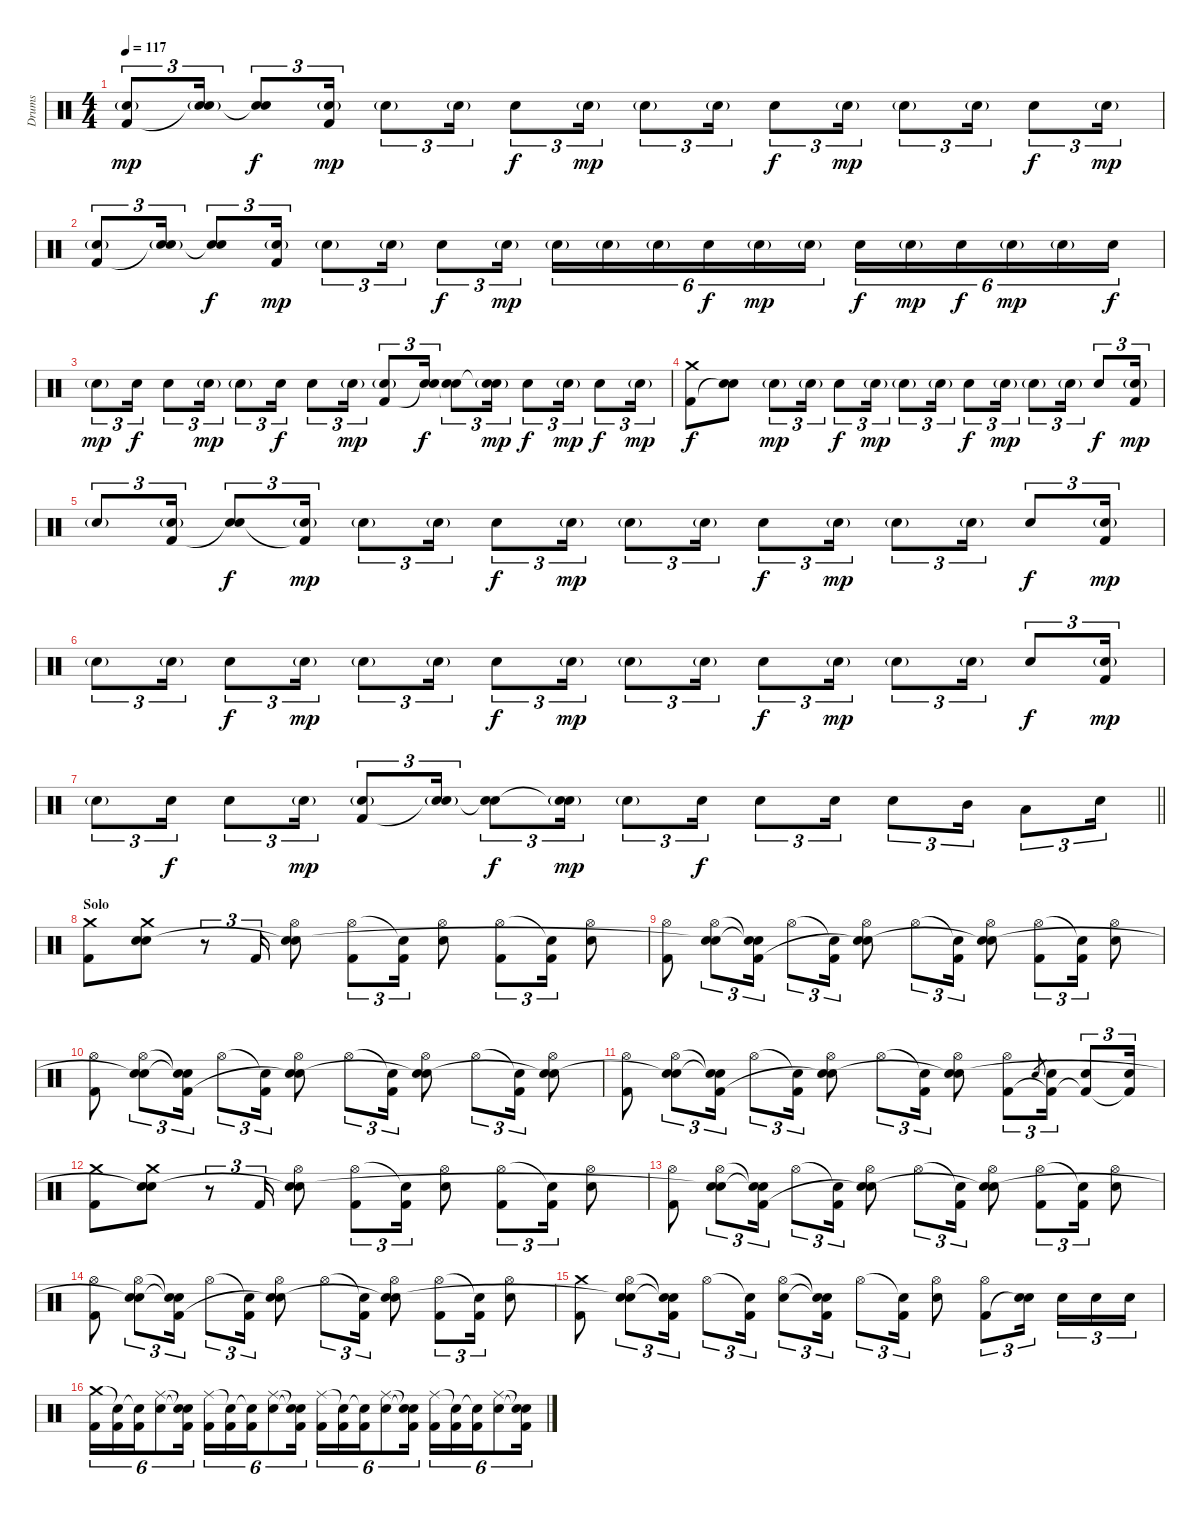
\track ("Drums" "Drums") {instrument percussion}
\staff {score}
\articulation defaults
\ts (4 4)
\tempo 117
\clef neutral
\ks aminor
("Electric Snare (hit)"{g} "Kick (hit) 2").8{tu (3 2) dy mp} ("Electric Snare (hit)"{g} "Snare (hit)"{t}).16{tu (3 2)} ("Electric Snare (hit)" "Snare (hit)"{t}).8{tu (3 2) dy f} ("Electric Snare (hit)"{g} "Kick (hit) 2").16{tu (3 2) dy mp} "Electric Snare (hit)"{g}.8{tu (3 2)} "Electric Snare (hit)"{g}.16{tu (3 2)} "Electric Snare (hit)".8{tu (3 2) dy f} "Electric Snare (hit)"{g}.16{tu (3 2) dy mp} "Electric Snare (hit)"{g}.8{tu (3 2)} "Electric Snare (hit)"{g}.16{tu (3 2)} "Electric Snare (hit)".8{tu (3 2) dy f} "Electric Snare (hit)"{g}.16{tu (3 2) dy mp} "Electric Snare (hit)"{g}.8{tu (3 2)} "Electric Snare (hit)"{g}.16{tu (3 2)} "Electric Snare (hit)".8{tu (3 2) dy f} "Electric Snare (hit)"{g}.16{tu (3 2) dy mp} |
("Electric Snare (hit)"{g} "Kick (hit) 2").8{tu (3 2)} ("Electric Snare (hit)"{g} "Snare (hit)"{t}).16{tu (3 2)} ("Electric Snare (hit)" "Snare (hit)"{t}).8{tu (3 2) dy f} ("Electric Snare (hit)"{g} "Kick (hit) 2").16{tu (3 2) dy mp} "Electric Snare (hit)"{g}.8{tu (3 2)} "Electric Snare (hit)"{g}.16{tu (3 2)} "Electric Snare (hit)".8{tu (3 2) dy f} "Electric Snare (hit)"{g}.16{tu (3 2) dy mp} "Electric Snare (hit)"{g}.16{tu (6 4)} "Electric Snare (hit)"{g}.16{tu (6 4)} "Electric Snare (hit)"{g}.16{tu (6 4)} "Electric Snare (hit)".16{tu (6 4) dy f} "Electric Snare (hit)"{g}.16{tu (6 4) dy mp} "Electric Snare (hit)"{g}.16{tu (6 4)} "Electric Snare (hit)".16{tu (6 4) dy f} "Electric Snare (hit)"{g}.16{tu (6 4) dy mp} "Electric Snare (hit)".16{tu (6 4) dy f} "Electric Snare (hit)"{g}.16{tu (6 4) dy mp} "Electric Snare (hit)"{g}.16{tu (6 4)} "Electric Snare (hit)".16{tu (6 4) dy f} |
"Electric Snare (hit)"{g}.8{tu (3 2) dy mp} "Electric Snare (hit)".16{tu (3 2) dy f} "Electric Snare (hit)".8{tu (3 2)} "Electric Snare (hit)"{g}.16{tu (3 2) dy mp} "Electric Snare (hit)"{g}.8{tu (3 2)} "Electric Snare (hit)".16{tu (3 2) dy f} "Electric Snare (hit)".8{tu (3 2)} "Electric Snare (hit)"{g}.16{tu (3 2) dy mp} ("Electric Snare (hit)"{g} "Kick (hit) 2").8{tu (3 2)} ("Electric Snare (hit)" "Snare (hit)"{t}).16{tu (3 2) dy f} ("Electric Snare (hit)" "Snare (hit)"{t}).8{tu (3 2)} ("Electric Snare (hit)"{g} "Snare (hit)"{t}).16{tu (3 2) dy mp} "Electric Snare (hit)".8{tu (3 2) dy f} "Electric Snare (hit)"{g}.16{tu (3 2) dy mp} "Electric Snare (hit)".8{tu (3 2) dy f} "Electric Snare (hit)"{g}.16{tu (3 2) dy mp} |
("Crash medium (hit)" "Kick (hit) 2").8{dy f} ("Electric Snare (hit)" "Snare (hit)"{t}).8 "Electric Snare (hit)"{g}.8{tu (3 2) dy mp} "Electric Snare (hit)"{g}.16{tu (3 2)} "Electric Snare (hit)".8{tu (3 2) dy f} "Electric Snare (hit)"{g}.16{tu (3 2) dy mp} "Electric Snare (hit)"{g}.8{tu (3 2)} "Electric Snare (hit)"{g}.16{tu (3 2)} "Electric Snare (hit)".8{tu (3 2) dy f} "Electric Snare (hit)"{g}.16{tu (3 2) dy mp} "Electric Snare (hit)"{g}.8{tu (3 2)} "Electric Snare (hit)"{g}.16{tu (3 2)} "Electric Snare (hit)".8{tu (3 2) dy f} ("Electric Snare (hit)"{g} "Kick (hit) 2").16{tu (3 2) dy mp} |
"Electric Snare (hit)"{g}.8{tu (3 2)} ("Electric Snare (hit)"{g} "Kick (hit) 2").16{tu (3 2)} ("Electric Snare (hit)" "Snare (hit)"{t}).8{tu (3 2) dy f} ("Electric Snare (hit)"{g} "Kick (hit) 2"{t}).16{tu (3 2) dy mp} "Electric Snare (hit)"{g}.8{tu (3 2)} "Electric Snare (hit)"{g}.16{tu (3 2)} "Electric Snare (hit)".8{tu (3 2) dy f} "Electric Snare (hit)"{g}.16{tu (3 2) dy mp} "Electric Snare (hit)"{g}.8{tu (3 2)} "Electric Snare (hit)"{g}.16{tu (3 2)} "Electric Snare (hit)".8{tu (3 2) dy f} "Electric Snare (hit)"{g}.16{tu (3 2) dy mp} "Electric Snare (hit)"{g}.8{tu (3 2)} "Electric Snare (hit)"{g}.16{tu (3 2)} "Electric Snare (hit)".8{tu (3 2) dy f} ("Electric Snare (hit)"{g} "Kick (hit) 2").16{tu (3 2) dy mp} |
"Electric Snare (hit)"{g}.8{tu (3 2)} "Electric Snare (hit)"{g}.16{tu (3 2)} "Electric Snare (hit)".8{tu (3 2) dy f} "Electric Snare (hit)"{g}.16{tu (3 2) dy mp} "Electric Snare (hit)"{g}.8{tu (3 2)} "Electric Snare (hit)"{g}.16{tu (3 2)} "Electric Snare (hit)".8{tu (3 2) dy f} "Electric Snare (hit)"{g}.16{tu (3 2) dy mp} "Electric Snare (hit)"{g}.8{tu (3 2)} "Electric Snare (hit)"{g}.16{tu (3 2)} "Electric Snare (hit)".8{tu (3 2) dy f} "Electric Snare (hit)"{g}.16{tu (3 2) dy mp} "Electric Snare (hit)"{g}.8{tu (3 2)} "Electric Snare (hit)"{g}.16{tu (3 2)} "Electric Snare (hit)".8{tu (3 2) dy f} ("Electric Snare (hit)"{g} "Kick (hit) 2").16{tu (3 2) dy mp} |
\barLineRight lightlight "Electric Snare (hit)"{g}.8{tu (3 2)} "Electric Snare (hit)".16{tu (3 2) dy f} "Electric Snare (hit)".8{tu (3 2)} "Electric Snare (hit)"{g}.16{tu (3 2) dy mp}
("Electric Snare (hit)"{g} "Kick (hit) 2").8{tu (3 2)} ("Electric Snare (hit)"{g} "Snare (hit)"{t}).16{tu (3 2)} ("Electric Snare (hit)" "Snare (hit)"{t}).8{tu (3 2) dy f} ("Electric Snare (hit)"{g} "Snare (hit)"{t}).16{tu (3 2) dy mp} "Electric Snare (hit)"{g}.8{tu (3 2)} "Electric Snare (hit)".16{tu (3 2) dy f} "Electric Snare (hit)".8{tu (3 2)} "Electric Snare (hit)".16{tu (3 2)} "Electric Snare (hit)".8{tu (3 2)} "Mid Tom (hit)".16{tu (3 2)} "Low Floor Tom (hit)".8{tu (3 2)} "Electric Snare (hit)".16{tu (3 2)} |
\section ("" "Solo")
("Crash medium (hit)" "Kick (hit) 2").8 ("Crash medium (hit)" "Electric Snare (hit)" "Snare (hit)").8 r.8{tu (3 2)} "Kick (hit) 2".16{tu (3 2)} ("Hi-Hat (open)" "Electric Snare (hit)" "Snare (hit)"{t}).8 ("Hi-Hat (open)" "Kick (hit) 2").8{tu (3 2)} ("Snare (hit)"{t} "Kick (hit) 2").16{tu (3 2)} ("Hi-Hat (open)" "Electric Snare (hit)").8 ("Hi-Hat (open)" "Kick (hit) 2").8{tu (3 2)} ("Snare (hit)"{t} "Kick (hit) 2").16{tu (3 2)} ("Hi-Hat (open)" "Electric Snare (hit)").8 |
("Hi-Hat (open)" "Kick (hit) 2").8 ("Hi-Hat (open)" "Electric Snare (hit)" "Snare (hit)"{t}).8{tu (3 2)} ("Snare (hit)"{t} "Snare (hit)"{t} "Kick (hit) 2").16{tu (3 2)} "Hi-Hat (open)".8{tu (3 2)} ("Snare (hit)"{t} "Kick (hit) 2").16{tu (3 2)} ("Hi-Hat (open)" "Electric Snare (hit)" "Snare (hit)"{t}).8 "Hi-Hat (open)".8{tu (3 2)} ("Snare (hit)"{t} "Kick (hit) 2").16{tu (3 2)} ("Hi-Hat (open)" "Electric Snare (hit)" "Snare (hit)"{t}).8 ("Hi-Hat (open)" "Kick (hit) 2").8{tu (3 2)} ("Snare (hit)"{t} "Kick (hit) 2").16{tu (3 2)} ("Hi-Hat (open)" "Electric Snare (hit)").8 |
("Hi-Hat (open)" "Kick (hit) 2").8 ("Hi-Hat (open)" "Electric Snare (hit)" "Snare (hit)"{t}).8{tu (3 2)} ("Snare (hit)"{t} "Snare (hit)"{t} "Kick (hit) 2").16{tu (3 2)} "Hi-Hat (open)".8{tu (3 2)} ("Snare (hit)"{t} "Kick (hit) 2").16{tu (3 2)} ("Hi-Hat (open)" "Electric Snare (hit)" "Snare (hit)"{t}).8 "Hi-Hat (open)".8{tu (3 2)} ("Snare (hit)"{t} "Kick (hit) 2").16{tu (3 2)} ("Hi-Hat (open)" "Electric Snare (hit)" "Snare (hit)"{t}).8 "Hi-Hat (open)".8{tu (3 2)} ("Snare (hit)"{t} "Kick (hit) 2").16{tu (3 2)} ("Hi-Hat (open)" "Electric Snare (hit)" "Snare (hit)"{t}).8 |
("Hi-Hat (open)" "Kick (hit) 2").8 ("Hi-Hat (open)" "Electric Snare (hit)" "Snare (hit)"{t}).8{tu (3 2)} ("Snare (hit)"{t} "Snare (hit)"{t} "Kick (hit) 2").16{tu (3 2)} "Hi-Hat (open)".8{tu (3 2)} ("Snare (hit)"{t} "Kick (hit) 2").16{tu (3 2)} ("Hi-Hat (open)" "Electric Snare (hit)" "Snare (hit)"{t}).8 "Hi-Hat (open)".8{tu (3 2)} ("Snare (hit)"{t} "Kick (hit) 2").16{tu (3 2)} ("Hi-Hat (open)" "Electric Snare (hit)" "Snare (hit)"{t}).8 ("Hi-Hat (open)" "Kick (hit) 2").8{tu (3 2)} "Electric Snare (hit)".8{gr} ("Electric Snare (hit)" "Kick (hit) 2"{t}).16{tu (3 2)} ("Electric Snare (hit)" "Kick (hit) 2"{t}).8{tu (3 2)} ("Electric Snare (hit)" "Kick (hit) 2"{t}).16{tu (3 2)} |
("Crash medium (hit)" "Kick (hit) 2").8 ("Crash medium (hit)" "Electric Snare (hit)" "Snare (hit)"{t}).8 r.8{tu (3 2)} "Kick (hit) 2".16{tu (3 2)} ("Hi-Hat (open)" "Electric Snare (hit)" "Snare (hit)"{t}).8 ("Hi-Hat (open)" "Kick (hit) 2").8{tu (3 2)} ("Snare (hit)"{t} "Kick (hit) 2").16{tu (3 2)} ("Hi-Hat (open)" "Electric Snare (hit)").8 ("Hi-Hat (open)" "Kick (hit) 2").8{tu (3 2)} ("Snare (hit)"{t} "Kick (hit) 2").16{tu (3 2)} ("Hi-Hat (open)" "Electric Snare (hit)").8 |
("Hi-Hat (open)" "Kick (hit) 2").8 ("Hi-Hat (open)" "Electric Snare (hit)" "Snare (hit)"{t}).8{tu (3 2)} ("Snare (hit)"{t} "Snare (hit)"{t} "Kick (hit) 2").16{tu (3 2)} "Hi-Hat (open)".8{tu (3 2)} ("Snare (hit)"{t} "Kick (hit) 2").16{tu (3 2)} ("Hi-Hat (open)" "Electric Snare (hit)" "Snare (hit)"{t}).8 "Hi-Hat (open)".8{tu (3 2)} ("Snare (hit)"{t} "Kick (hit) 2").16{tu (3 2)} ("Hi-Hat (open)" "Electric Snare (hit)" "Snare (hit)"{t}).8 ("Hi-Hat (open)" "Kick (hit) 2").8{tu (3 2)} ("Snare (hit)"{t} "Kick (hit) 2").16{tu (3 2)} ("Hi-Hat (open)" "Electric Snare (hit)").8 |
("Hi-Hat (open)" "Kick (hit) 2").8 ("Hi-Hat (open)" "Electric Snare (hit)" "Snare (hit)"{t}).8{tu (3 2)} ("Snare (hit)"{t} "Snare (hit)"{t} "Kick (hit) 2").16{tu (3 2)} "Hi-Hat (open)".8{tu (3 2)} ("Snare (hit)"{t} "Kick (hit) 2").16{tu (3 2)} ("Hi-Hat (open)" "Electric Snare (hit)" "Snare (hit)"{t}).8 "Hi-Hat (open)".8{tu (3 2)} ("Snare (hit)"{t} "Kick (hit) 2").16{tu (3 2)} ("Hi-Hat (open)" "Electric Snare (hit)" "Snare (hit)"{t}).8 ("Hi-Hat (open)" "Kick (hit) 2").8{tu (3 2)} ("Snare (hit)"{t} "Kick (hit) 2").16{tu (3 2)} ("Hi-Hat (open)" "Electric Snare (hit)").8 |
("Crash medium (hit)" "Kick (hit) 2").8 ("Hi-Hat (open)" "Electric Snare (hit)" "Snare (hit)"{t}).8{tu (3 2)} ("Snare (hit)"{t} "Snare (hit)"{t} "Kick (hit) 2").16{tu (3 2)} "Hi-Hat (open)".8{tu (3 2)} ("Snare (hit)"{t} "Kick (hit) 2").16{tu (3 2)} ("Hi-Hat (open)" "Electric Snare (hit)").8{tu (3 2)} ("Snare (hit)"{t} "Snare (hit)"{t} "Kick (hit) 2").16{tu (3 2)} "Hi-Hat (open)".8{tu (3 2)} ("Snare (hit)"{t} "Kick (hit) 2").16{tu (3 2)} ("Hi-Hat (open)" "Electric Snare (hit)").8 ("Hi-Hat (open)" "Kick (hit) 2").8{tu (3 2)} ("Electric Snare (hit)" "Snare (hit)"{t}).16{tu (3 2)} "Electric Snare (hit)".16{tu (3 2)} "Electric Snare (hit)".16{tu (3 2)} "Electric Snare (hit)".16{tu (3 2)} |
("Crash medium (hit)" "Kick (hit) 2").16{tu (6 4)} ("Snare (hit)"{t} "Kick (hit) 2").16{tu (6 4)} ("Snare (hit)"{t} "Kick (hit) 2").16{tu (6 4)} ("Ride (middle)" "Electric Snare (hit)").8{tu (6 4)} ("Snare (hit)"{t} "Snare (hit)"{t} "Kick (hit) 2").16{tu (6 4)} ("Ride (middle)" "Kick (hit) 2").16{tu (6 4)} ("Snare (hit)"{t} "Kick (hit) 2").16{tu (6 4)} ("Snare (hit)"{t} "Kick (hit) 2").16{tu (6 4)} ("Ride (middle)" "Electric Snare (hit)").8{tu (6 4)} ("Snare (hit)"{t} "Snare (hit)"{t} "Kick (hit) 2").16{tu (6 4)} ("Ride (middle)" "Kick (hit) 2").16{tu (6 4)} ("Snare (hit)"{t} "Kick (hit) 2").16{tu (6 4)} ("Snare (hit)"{t} "Kick (hit) 2").16{tu (6 4)} ("Ride (middle)" "Electric Snare (hit)").8{tu (6 4)} ("Snare (hit)"{t} "Snare (hit)"{t} "Kick (hit) 2").16{tu (6 4)} ("Ride (middle)" "Kick (hit) 2").16{tu (6 4)} ("Snare (hit)"{t} "Kick (hit) 2").16{tu (6 4)} ("Snare (hit)"{t} "Kick (hit) 2").16{tu (6 4)} ("Ride (middle)" "Electric Snare (hit)").8{tu (6 4)} ("Snare (hit)"{t} "Snare (hit)"{t} "Kick (hit) 2").16{tu (6 4)}
